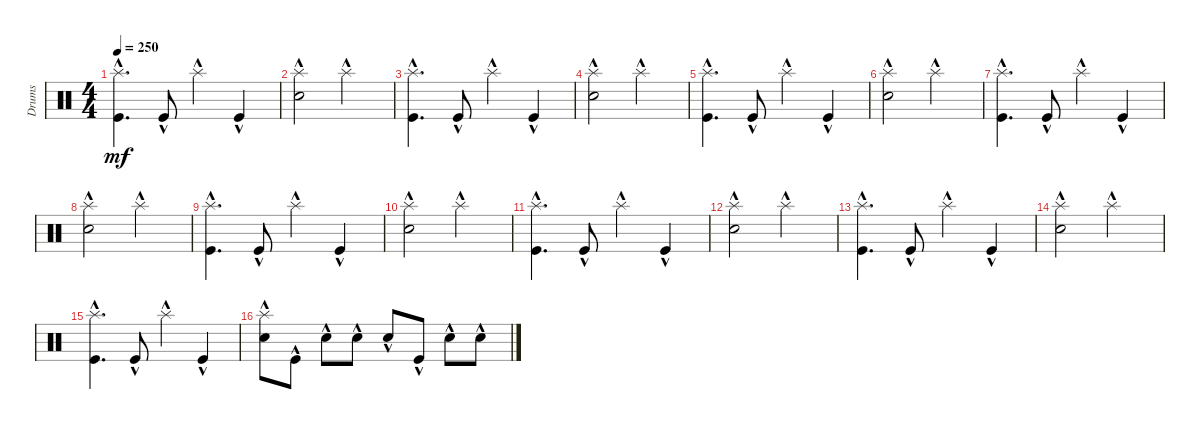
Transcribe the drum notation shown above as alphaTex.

\track ("Drums" "Drums") {instrument percussion}
\staff {score}
\articulation defaults
\ts (4 4)
\tempo 250
\clef neutral
\ks c
("Kick (hit)"{hac} "Splash (hit)"{hac}).4{d dy mf} "Kick (hit)"{hac}.8 "Splash (hit)"{hac}.4 "Kick (hit)"{hac}.4 |
("Snare (hit) 2"{hac} "Splash (hit)"{hac}).2 "Splash (hit)"{hac}.2 |
("Kick (hit)"{hac} "Splash (hit)"{hac}).4{d} "Kick (hit)"{hac}.8 "Splash (hit)"{hac}.4 "Kick (hit)"{hac}.4 |
("Snare (hit) 2"{hac} "Splash (hit)"{hac}).2 "Splash (hit)"{hac}.2 |
("Kick (hit)"{hac} "Splash (hit)"{hac}).4{d} "Kick (hit)"{hac}.8 "Splash (hit)"{hac}.4 "Kick (hit)"{hac}.4 |
("Snare (hit) 2"{hac} "Splash (hit)"{hac}).2 "Splash (hit)"{hac}.2 |
("Kick (hit)"{hac} "Splash (hit)"{hac}).4{d} "Kick (hit)"{hac}.8 "Splash (hit)"{hac}.4 "Kick (hit)"{hac}.4 |
("Snare (hit) 2"{hac} "Splash (hit)"{hac}).2 "Splash (hit)"{hac}.2 |
("Kick (hit)"{hac} "Splash (hit)"{hac}).4{d} "Kick (hit)"{hac}.8 "Splash (hit)"{hac}.4 "Kick (hit)"{hac}.4 |
("Snare (hit) 2"{hac} "Splash (hit)"{hac}).2 "Splash (hit)"{hac}.2 |
("Kick (hit)"{hac} "Splash (hit)"{hac}).4{d} "Kick (hit)"{hac}.8 "Splash (hit)"{hac}.4 "Kick (hit)"{hac}.4 |
("Snare (hit) 2"{hac} "Splash (hit)"{hac}).2 "Splash (hit)"{hac}.2 |
("Kick (hit)"{hac} "Splash (hit)"{hac}).4{d} "Kick (hit)"{hac}.8 "Splash (hit)"{hac}.4 "Kick (hit)"{hac}.4 |
("Snare (hit) 2"{hac} "Splash (hit)"{hac}).2 "Splash (hit)"{hac}.2 |
("Kick (hit)"{hac} "Splash (hit)"{hac}).4{d} "Kick (hit)"{hac}.8 "Splash (hit)"{hac}.4 "Kick (hit)"{hac}.4 |
("Snare (hit) 2"{hac} "Splash (hit)"{hac}).8 "Kick (hit)"{hac}.8 "Snare (hit) 2"{hac}.8 "Snare (hit) 2"{hac}.8 "Snare (hit) 2"{hac}.8 "Kick (hit)"{hac}.8 "Snare (hit) 2"{hac}.8 "Snare (hit) 2"{hac}.8
